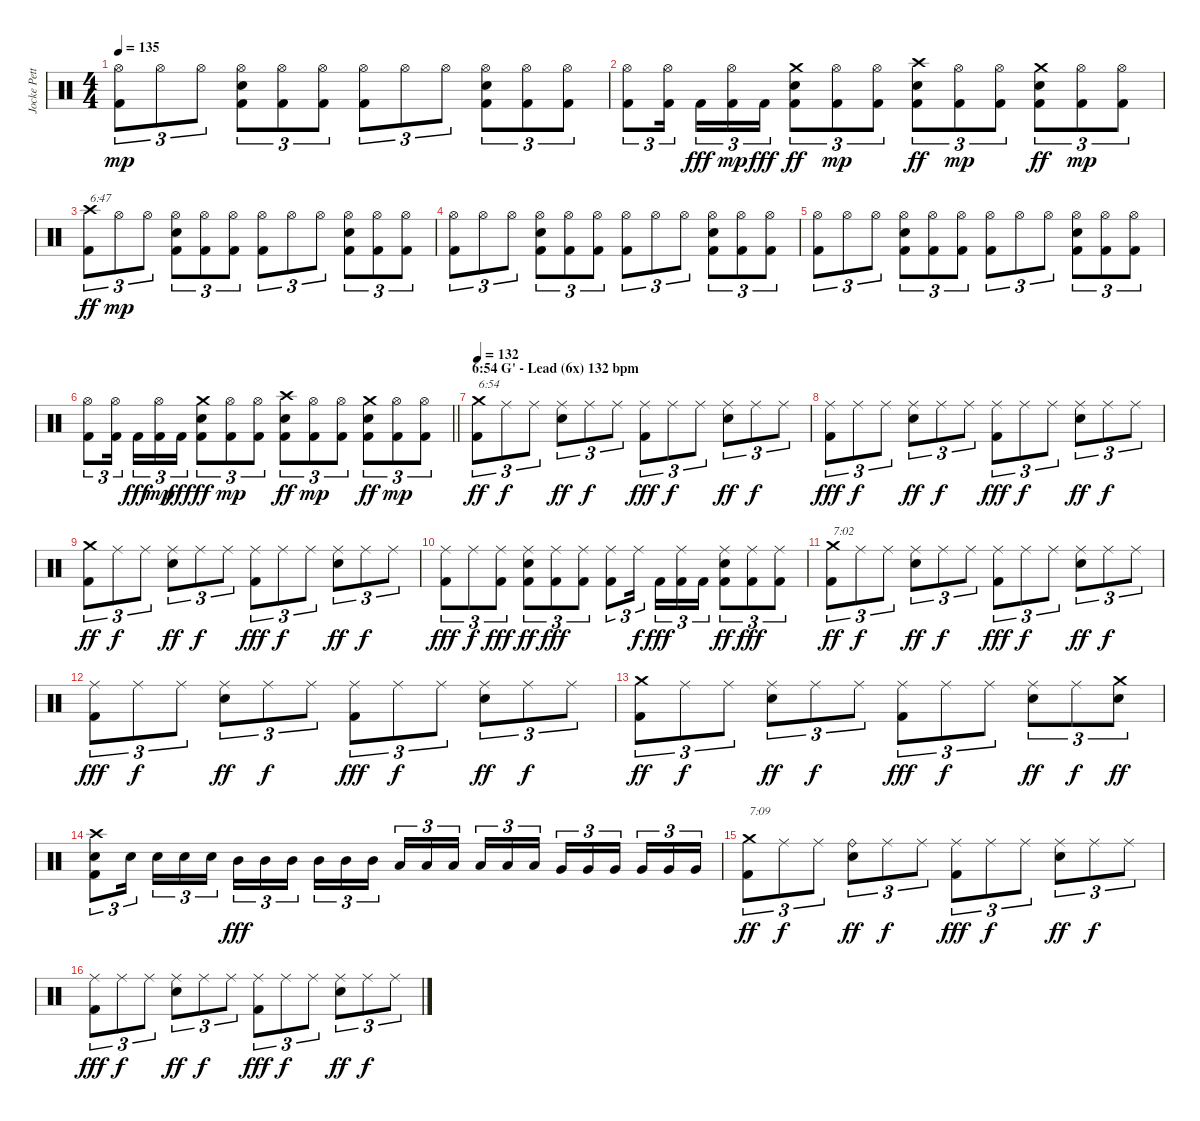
\track ("Jocke Pettersson" "Jocke Pett") {instrument percussion}
\staff {score}
\articulation defaults
\ts (4 4)
\tempo 135
\clef neutral
\ks c
("Kick (hit) 2" "Hi-Hat (open)").8{tu (3 2) dy mp} "Hi-Hat (open)".8{tu (3 2)} "Hi-Hat (open)".8{tu (3 2)} ("Kick (hit) 2" "Electric Snare (hit)" "Hi-Hat (open)").8{tu (3 2)} ("Kick (hit) 2" "Hi-Hat (open)").8{tu (3 2)} ("Kick (hit) 2" "Hi-Hat (open)").8{tu (3 2)} ("Kick (hit) 2" "Hi-Hat (open)").8{tu (3 2)} "Hi-Hat (open)".8{tu (3 2)} "Hi-Hat (open)".8{tu (3 2)} ("Kick (hit) 2" "Electric Snare (hit)" "Hi-Hat (open)").8{tu (3 2)} ("Kick (hit) 2" "Hi-Hat (open)").8{tu (3 2)} ("Kick (hit) 2" "Hi-Hat (open)").8{tu (3 2)} |
("Kick (hit) 2" "Hi-Hat (open)").8{tu (3 2)} ("Kick (hit) 2" "Hi-Hat (open)").16{tu (3 2) beam splitsecondary} "Kick (hit) 2".16{tu (3 2) dy fff} ("Kick (hit) 2" "Hi-Hat (open)").16{tu (3 2) dy mp} "Kick (hit) 2".16{tu (3 2) dy fff} ("Kick (hit) 2" "Electric Snare (hit)" "Crash medium (hit)").8{tu (3 2) dy ff} ("Kick (hit) 2" "Hi-Hat (open)").8{tu (3 2) dy mp} ("Kick (hit) 2" "Hi-Hat (open)").8{tu (3 2)} ("Kick (hit) 2" "Electric Snare (hit)" "Crash high (hit)").8{tu (3 2) dy ff} ("Kick (hit) 2" "Hi-Hat (open)").8{tu (3 2) dy mp} ("Kick (hit) 2" "Hi-Hat (open)").8{tu (3 2)} ("Kick (hit) 2" "Electric Snare (hit)" "Crash medium (hit)").8{tu (3 2) dy ff} ("Kick (hit) 2" "Hi-Hat (open)").8{tu (3 2) dy mp} ("Kick (hit) 2" "Hi-Hat (open)").8{tu (3 2)} |
("Kick (hit) 2" "Crash high (hit)").8{tu (3 2) txt "6:47" dy ff} "Hi-Hat (open)".8{tu (3 2) dy mp} "Hi-Hat (open)".8{tu (3 2)} ("Kick (hit) 2" "Electric Snare (hit)" "Hi-Hat (open)").8{tu (3 2)} ("Kick (hit) 2" "Hi-Hat (open)").8{tu (3 2)} ("Kick (hit) 2" "Hi-Hat (open)").8{tu (3 2)} ("Kick (hit) 2" "Hi-Hat (open)").8{tu (3 2)} "Hi-Hat (open)".8{tu (3 2)} "Hi-Hat (open)".8{tu (3 2)} ("Kick (hit) 2" "Electric Snare (hit)" "Hi-Hat (open)").8{tu (3 2)} ("Kick (hit) 2" "Hi-Hat (open)").8{tu (3 2)} ("Kick (hit) 2" "Hi-Hat (open)").8{tu (3 2)} |
("Kick (hit) 2" "Hi-Hat (open)").8{tu (3 2)} "Hi-Hat (open)".8{tu (3 2)} "Hi-Hat (open)".8{tu (3 2)} ("Kick (hit) 2" "Electric Snare (hit)" "Hi-Hat (open)").8{tu (3 2)} ("Kick (hit) 2" "Hi-Hat (open)").8{tu (3 2)} ("Kick (hit) 2" "Hi-Hat (open)").8{tu (3 2)} ("Kick (hit) 2" "Hi-Hat (open)").8{tu (3 2)} "Hi-Hat (open)".8{tu (3 2)} "Hi-Hat (open)".8{tu (3 2)} ("Kick (hit) 2" "Electric Snare (hit)" "Hi-Hat (open)").8{tu (3 2)} ("Kick (hit) 2" "Hi-Hat (open)").8{tu (3 2)} ("Kick (hit) 2" "Hi-Hat (open)").8{tu (3 2)} |
("Kick (hit) 2" "Hi-Hat (open)").8{tu (3 2)} "Hi-Hat (open)".8{tu (3 2)} "Hi-Hat (open)".8{tu (3 2)} ("Kick (hit) 2" "Electric Snare (hit)" "Hi-Hat (open)").8{tu (3 2)} ("Kick (hit) 2" "Hi-Hat (open)").8{tu (3 2)} ("Kick (hit) 2" "Hi-Hat (open)").8{tu (3 2)} ("Kick (hit) 2" "Hi-Hat (open)").8{tu (3 2)} "Hi-Hat (open)".8{tu (3 2)} "Hi-Hat (open)".8{tu (3 2)} ("Kick (hit) 2" "Electric Snare (hit)" "Hi-Hat (open)").8{tu (3 2)} ("Kick (hit) 2" "Hi-Hat (open)").8{tu (3 2)} ("Kick (hit) 2" "Hi-Hat (open)").8{tu (3 2)} |
\barLineRight lightlight
("Kick (hit) 2" "Hi-Hat (open)").8{tu (3 2)} ("Kick (hit) 2" "Hi-Hat (open)").16{tu (3 2) beam splitsecondary} "Kick (hit) 2".16{tu (3 2) dy fff} ("Kick (hit) 2" "Hi-Hat (open)").16{tu (3 2) dy mp} "Kick (hit) 2".16{tu (3 2) dy fff} ("Kick (hit) 2" "Electric Snare (hit)" "Crash medium (hit)").8{tu (3 2) dy ff} ("Kick (hit) 2" "Hi-Hat (open)").8{tu (3 2) dy mp} ("Kick (hit) 2" "Hi-Hat (open)").8{tu (3 2)} ("Kick (hit) 2" "Electric Snare (hit)" "Crash high (hit)").8{tu (3 2) dy ff} ("Kick (hit) 2" "Hi-Hat (open)").8{tu (3 2) dy mp} ("Kick (hit) 2" "Hi-Hat (open)").8{tu (3 2)} ("Kick (hit) 2" "Electric Snare (hit)" "Crash medium (hit)").8{tu (3 2) dy ff} ("Kick (hit) 2" "Hi-Hat (open)").8{tu (3 2) dy mp} ("Kick (hit) 2" "Hi-Hat (open)").8{tu (3 2)} |
\section ("" "6:54 G' - Lead (6x) 132 bpm")
\tempo 132
("Kick (hit) 2" "Crash medium (hit)").8{tu (3 2) txt "6:54" dy ff} "Ride (middle)".8{tu (3 2) dy f} "Ride (middle)".8{tu (3 2)} ("Electric Snare (hit)" "Ride (middle)").8{tu (3 2) dy ff} "Ride (middle)".8{tu (3 2) dy f} "Ride (middle)".8{tu (3 2)} ("Kick (hit) 2" "Ride (middle)").8{tu (3 2) dy fff} "Ride (middle)".8{tu (3 2) dy f} "Ride (middle)".8{tu (3 2)} ("Electric Snare (hit)" "Ride (middle)").8{tu (3 2) dy ff} "Ride (middle)".8{tu (3 2) dy f} "Ride (middle)".8{tu (3 2)} |
("Kick (hit) 2" "Ride (middle)").8{tu (3 2) dy fff} "Ride (middle)".8{tu (3 2) dy f} "Ride (middle)".8{tu (3 2)} ("Electric Snare (hit)" "Ride (middle)").8{tu (3 2) dy ff} "Ride (middle)".8{tu (3 2) dy f} "Ride (middle)".8{tu (3 2)} ("Kick (hit) 2" "Ride (middle)").8{tu (3 2) dy fff} "Ride (middle)".8{tu (3 2) dy f} "Ride (middle)".8{tu (3 2)} ("Electric Snare (hit)" "Ride (middle)").8{tu (3 2) dy ff} "Ride (middle)".8{tu (3 2) dy f} "Ride (middle)".8{tu (3 2)} |
("Kick (hit) 2" "Crash medium (hit)").8{tu (3 2) dy ff} "Ride (middle)".8{tu (3 2) dy f} "Ride (middle)".8{tu (3 2)} ("Electric Snare (hit)" "Ride (middle)").8{tu (3 2) dy ff} "Ride (middle)".8{tu (3 2) dy f} "Ride (middle)".8{tu (3 2)} ("Kick (hit) 2" "Ride (middle)").8{tu (3 2) dy fff} "Ride (middle)".8{tu (3 2) dy f} "Ride (middle)".8{tu (3 2)} ("Electric Snare (hit)" "Ride (middle)").8{tu (3 2) dy ff} "Ride (middle)".8{tu (3 2) dy f} "Ride (middle)".8{tu (3 2)} |
("Kick (hit) 2" "Ride (middle)").8{tu (3 2) dy fff} "Ride (middle)".8{tu (3 2) dy f} ("Kick (hit) 2" "Ride (middle)").8{tu (3 2) dy fff} ("Kick (hit) 2" "Electric Snare (hit)" "Ride (middle)").8{tu (3 2) dy ff} ("Kick (hit) 2" "Ride (middle)").8{tu (3 2) dy fff} ("Kick (hit) 2" "Ride (middle)").8{tu (3 2)} ("Kick (hit) 2" "Ride (middle)").8{tu (3 2)} "Ride (middle)".16{tu (3 2) dy f beam splitsecondary} "Kick (hit) 2".16{tu (3 2) dy fff} ("Kick (hit) 2" "Ride (middle)").16{tu (3 2)} "Kick (hit) 2".16{tu (3 2)} ("Kick (hit) 2" "Electric Snare (hit)" "Ride (middle)").8{tu (3 2) dy ff} ("Kick (hit) 2" "Ride (middle)").8{tu (3 2) dy fff} ("Kick (hit) 2" "Ride (middle)").8{tu (3 2)} |
("Kick (hit) 2" "Crash medium (hit)").8{tu (3 2) txt "7:02" dy ff} "Ride (middle)".8{tu (3 2) dy f} "Ride (middle)".8{tu (3 2)} ("Electric Snare (hit)" "Ride (middle)").8{tu (3 2) dy ff} "Ride (middle)".8{tu (3 2) dy f} "Ride (middle)".8{tu (3 2)} ("Kick (hit) 2" "Ride (middle)").8{tu (3 2) dy fff} "Ride (middle)".8{tu (3 2) dy f} "Ride (middle)".8{tu (3 2)} ("Electric Snare (hit)" "Ride (middle)").8{tu (3 2) dy ff} "Ride (middle)".8{tu (3 2) dy f} "Ride (middle)".8{tu (3 2)} |
("Kick (hit) 2" "Ride (middle)").8{tu (3 2) dy fff} "Ride (middle)".8{tu (3 2) dy f} "Ride (middle)".8{tu (3 2)} ("Electric Snare (hit)" "Ride (middle)").8{tu (3 2) dy ff} "Ride (middle)".8{tu (3 2) dy f} "Ride (middle)".8{tu (3 2)} ("Kick (hit) 2" "Ride (middle)").8{tu (3 2) dy fff} "Ride (middle)".8{tu (3 2) dy f} "Ride (middle)".8{tu (3 2)} ("Electric Snare (hit)" "Ride (middle)").8{tu (3 2) dy ff} "Ride (middle)".8{tu (3 2) dy f} "Ride (middle)".8{tu (3 2)} |
("Kick (hit) 2" "Crash medium (hit)").8{tu (3 2) dy ff} "Ride (middle)".8{tu (3 2) dy f} "Ride (middle)".8{tu (3 2)} ("Electric Snare (hit)" "Ride (middle)").8{tu (3 2) dy ff} "Ride (middle)".8{tu (3 2) dy f} "Ride (middle)".8{tu (3 2)} ("Kick (hit) 2" "Ride (middle)").8{tu (3 2) dy fff} "Ride (middle)".8{tu (3 2) dy f} "Ride (middle)".8{tu (3 2)} ("Electric Snare (hit)" "Ride (middle)").8{tu (3 2) dy ff} "Ride (middle)".8{tu (3 2) dy f} ("Electric Snare (hit)" "Crash medium (hit)").8{tu (3 2) dy ff} |
("Kick (hit) 2" "Electric Snare (hit)" "Crash high (hit)").8{tu (3 2)} "Electric Snare (hit)".16{tu (3 2) beam splitsecondary} "Electric Snare (hit)".16{tu (3 2)} "Electric Snare (hit)".16{tu (3 2)} "Electric Snare (hit)".16{tu (3 2)} "Mid Tom (hit)".16{tu (3 2) dy fff} "Mid Tom (hit)".16{tu (3 2)} "Mid Tom (hit)".16{tu (3 2) beam splitsecondary} "Mid Tom (hit)".16{tu (3 2)} "Mid Tom (hit)".16{tu (3 2)} "Mid Tom (hit)".16{tu (3 2)} "Low Tom (hit)".16{tu (3 2)} "Low Tom (hit)".16{tu (3 2)} "Low Tom (hit)".16{tu (3 2) beam splitsecondary} "Low Tom (hit)".16{tu (3 2)} "Low Tom (hit)".16{tu (3 2)} "Low Tom (hit)".16{tu (3 2)} "Very Low Tom (hit)".16{tu (3 2)} "Very Low Tom (hit)".16{tu (3 2)} "Very Low Tom (hit)".16{tu (3 2) beam splitsecondary} "Very Low Tom (hit)".16{tu (3 2)} "Very Low Tom (hit)".16{tu (3 2)} "Very Low Tom (hit)".16{tu (3 2)} |
("Kick (hit) 2" "Crash medium (hit)").8{tu (3 2) txt "7:09" dy ff} "Ride (middle)".8{tu (3 2) dy f} "Ride (middle)".8{tu (3 2)} ("Electric Snare (hit)" "Ride (bell)").8{tu (3 2) dy ff} "Ride (middle)".8{tu (3 2) dy f} "Ride (middle)".8{tu (3 2)} ("Kick (hit) 2" "Ride (middle)").8{tu (3 2) dy fff} "Ride (middle)".8{tu (3 2) dy f} "Ride (middle)".8{tu (3 2)} ("Electric Snare (hit)" "Ride (middle)").8{tu (3 2) dy ff} "Ride (middle)".8{tu (3 2) dy f} "Ride (middle)".8{tu (3 2)} |
("Kick (hit) 2" "Ride (middle)").8{tu (3 2) dy fff} "Ride (middle)".8{tu (3 2) dy f} "Ride (middle)".8{tu (3 2)} ("Electric Snare (hit)" "Ride (middle)").8{tu (3 2) dy ff} "Ride (middle)".8{tu (3 2) dy f} "Ride (middle)".8{tu (3 2)} ("Kick (hit) 2" "Ride (middle)").8{tu (3 2) dy fff} "Ride (middle)".8{tu (3 2) dy f} "Ride (middle)".8{tu (3 2)} ("Electric Snare (hit)" "Ride (middle)").8{tu (3 2) dy ff} "Ride (middle)".8{tu (3 2) dy f} "Ride (middle)".8{tu (3 2)}
